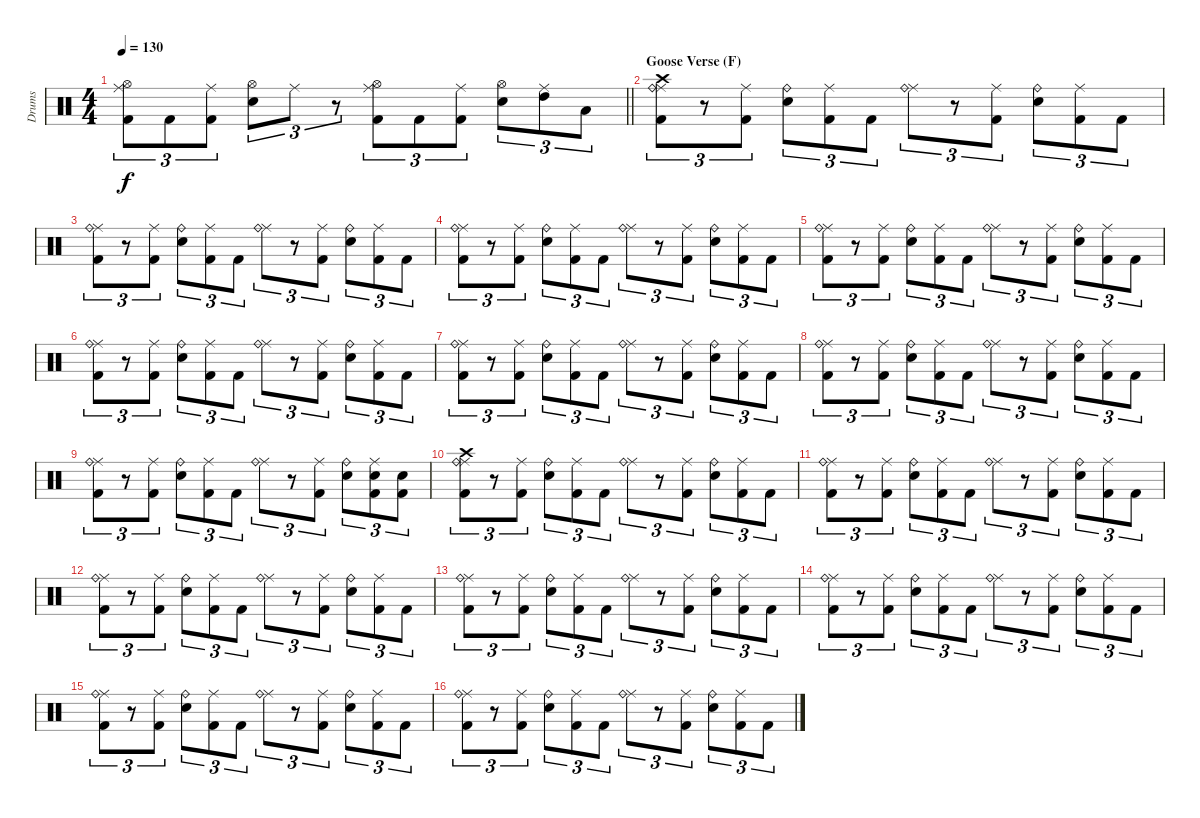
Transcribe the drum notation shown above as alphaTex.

\track ("Drums" "Drums") {instrument percussion}
\staff {score}
\articulation defaults
\ts (4 4)
\tempo 130
\clef neutral
\barLineRight lightlight
\ks c
("Ride (middle)" "Hi-Hat (open)" "Kick (hit) 2").8{tu (3 2) dy f} "Kick (hit) 2".8{tu (3 2)} ("Ride (middle)" "Kick (hit) 2").8{tu (3 2)} ("Hi-Hat (open)" "Snare (hit) 2").8{tu (3 2)} "Ride (middle)".8{tu (3 2)} r.8{tu (3 2)} ("Ride (middle)" "Hi-Hat (open)" "Kick (hit) 2").8{tu (3 2)} "Kick (hit) 2".8{tu (3 2)} ("Ride (middle)" "Kick (hit) 2").8{tu (3 2)} ("Hi-Hat (open)" "Snare (hit) 2").8{tu (3 2)} ("Ride (middle)" "High Tom (hit)").8{tu (3 2)} "Low Tom (hit)".8{tu (3 2)} |
\section ("" "Goose Verse (F)")
("Crash high (hit)" "Ride (middle)" "Ride (bell)" "Kick (hit) 2").8{tu (3 2)} r.8{tu (3 2)} ("Ride (middle)" "Kick (hit) 2").8{tu (3 2)} ("Ride (bell)" "Snare (hit) 2").8{tu (3 2)} ("Ride (middle)" "Kick (hit) 2").8{tu (3 2)} "Kick (hit) 2".8{tu (3 2)} ("Ride (middle)" "Ride (bell)").8{tu (3 2)} r.8{tu (3 2)} ("Ride (middle)" "Kick (hit) 2").8{tu (3 2)} ("Ride (bell)" "Snare (hit) 2").8{tu (3 2)} ("Ride (middle)" "Kick (hit) 2").8{tu (3 2)} "Kick (hit) 2".8{tu (3 2)} |
("Ride (middle)" "Ride (bell)" "Kick (hit) 2").8{tu (3 2)} r.8{tu (3 2)} ("Ride (middle)" "Kick (hit) 2").8{tu (3 2)} ("Ride (bell)" "Snare (hit) 2").8{tu (3 2)} ("Ride (middle)" "Kick (hit) 2").8{tu (3 2)} "Kick (hit) 2".8{tu (3 2)} ("Ride (middle)" "Ride (bell)").8{tu (3 2)} r.8{tu (3 2)} ("Ride (middle)" "Kick (hit) 2").8{tu (3 2)} ("Ride (bell)" "Snare (hit) 2").8{tu (3 2)} ("Ride (middle)" "Kick (hit) 2").8{tu (3 2)} "Kick (hit) 2".8{tu (3 2)} |
("Ride (middle)" "Ride (bell)" "Kick (hit) 2").8{tu (3 2)} r.8{tu (3 2)} ("Ride (middle)" "Kick (hit) 2").8{tu (3 2)} ("Ride (bell)" "Snare (hit) 2").8{tu (3 2)} ("Ride (middle)" "Kick (hit) 2").8{tu (3 2)} "Kick (hit) 2".8{tu (3 2)} ("Ride (middle)" "Ride (bell)").8{tu (3 2)} r.8{tu (3 2)} ("Ride (middle)" "Kick (hit) 2").8{tu (3 2)} ("Ride (bell)" "Snare (hit) 2").8{tu (3 2)} ("Ride (middle)" "Kick (hit) 2").8{tu (3 2)} "Kick (hit) 2".8{tu (3 2)} |
("Ride (middle)" "Ride (bell)" "Kick (hit) 2").8{tu (3 2)} r.8{tu (3 2)} ("Ride (middle)" "Kick (hit) 2").8{tu (3 2)} ("Ride (bell)" "Snare (hit) 2").8{tu (3 2)} ("Ride (middle)" "Kick (hit) 2").8{tu (3 2)} "Kick (hit) 2".8{tu (3 2)} ("Ride (middle)" "Ride (bell)").8{tu (3 2)} r.8{tu (3 2)} ("Ride (middle)" "Kick (hit) 2").8{tu (3 2)} ("Ride (bell)" "Snare (hit) 2").8{tu (3 2)} ("Ride (middle)" "Kick (hit) 2").8{tu (3 2)} "Kick (hit) 2".8{tu (3 2)} |
("Ride (middle)" "Ride (bell)" "Kick (hit) 2").8{tu (3 2)} r.8{tu (3 2)} ("Ride (middle)" "Kick (hit) 2").8{tu (3 2)} ("Ride (bell)" "Snare (hit) 2").8{tu (3 2)} ("Ride (middle)" "Kick (hit) 2").8{tu (3 2)} "Kick (hit) 2".8{tu (3 2)} ("Ride (middle)" "Ride (bell)").8{tu (3 2)} r.8{tu (3 2)} ("Ride (middle)" "Kick (hit) 2").8{tu (3 2)} ("Ride (bell)" "Snare (hit) 2").8{tu (3 2)} ("Ride (middle)" "Kick (hit) 2").8{tu (3 2)} "Kick (hit) 2".8{tu (3 2)} |
("Ride (middle)" "Ride (bell)" "Kick (hit) 2").8{tu (3 2)} r.8{tu (3 2)} ("Ride (middle)" "Kick (hit) 2").8{tu (3 2)} ("Ride (bell)" "Snare (hit) 2").8{tu (3 2)} ("Ride (middle)" "Kick (hit) 2").8{tu (3 2)} "Kick (hit) 2".8{tu (3 2)} ("Ride (middle)" "Ride (bell)").8{tu (3 2)} r.8{tu (3 2)} ("Ride (middle)" "Kick (hit) 2").8{tu (3 2)} ("Ride (bell)" "Snare (hit) 2").8{tu (3 2)} ("Ride (middle)" "Kick (hit) 2").8{tu (3 2)} "Kick (hit) 2".8{tu (3 2)} |
("Ride (middle)" "Ride (bell)" "Kick (hit) 2").8{tu (3 2)} r.8{tu (3 2)} ("Ride (middle)" "Kick (hit) 2").8{tu (3 2)} ("Ride (bell)" "Snare (hit) 2").8{tu (3 2)} ("Ride (middle)" "Kick (hit) 2").8{tu (3 2)} "Kick (hit) 2".8{tu (3 2)} ("Ride (middle)" "Ride (bell)").8{tu (3 2)} r.8{tu (3 2)} ("Ride (middle)" "Kick (hit) 2").8{tu (3 2)} ("Ride (bell)" "Snare (hit) 2").8{tu (3 2)} ("Ride (middle)" "Kick (hit) 2").8{tu (3 2)} "Kick (hit) 2".8{tu (3 2)} |
("Ride (middle)" "Ride (bell)" "Kick (hit) 2").8{tu (3 2)} r.8{tu (3 2)} ("Ride (middle)" "Kick (hit) 2").8{tu (3 2)} ("Ride (bell)" "Snare (hit) 2").8{tu (3 2)} ("Ride (middle)" "Kick (hit) 2").8{tu (3 2)} "Kick (hit) 2".8{tu (3 2)} ("Ride (middle)" "Ride (bell)").8{tu (3 2)} r.8{tu (3 2)} ("Ride (middle)" "Kick (hit) 2").8{tu (3 2)} ("Ride (bell)" "Snare (hit) 2").8{tu (3 2)} ("Ride (middle)" "Snare (hit) 2" "Kick (hit) 2").8{tu (3 2)} ("Snare (hit) 2" "Kick (hit) 2").8{tu (3 2)} |
("Crash high (hit)" "Ride (middle)" "Ride (bell)" "Kick (hit) 2").8{tu (3 2)} r.8{tu (3 2)} ("Ride (middle)" "Kick (hit) 2").8{tu (3 2)} ("Ride (bell)" "Snare (hit) 2").8{tu (3 2)} ("Ride (middle)" "Kick (hit) 2").8{tu (3 2)} "Kick (hit) 2".8{tu (3 2)} ("Ride (middle)" "Ride (bell)").8{tu (3 2)} r.8{tu (3 2)} ("Ride (middle)" "Kick (hit) 2").8{tu (3 2)} ("Ride (bell)" "Snare (hit) 2").8{tu (3 2)} ("Ride (middle)" "Kick (hit) 2").8{tu (3 2)} "Kick (hit) 2".8{tu (3 2)} |
("Ride (middle)" "Ride (bell)" "Kick (hit) 2").8{tu (3 2)} r.8{tu (3 2)} ("Ride (middle)" "Kick (hit) 2").8{tu (3 2)} ("Ride (bell)" "Snare (hit) 2").8{tu (3 2)} ("Ride (middle)" "Kick (hit) 2").8{tu (3 2)} "Kick (hit) 2".8{tu (3 2)} ("Ride (middle)" "Ride (bell)").8{tu (3 2)} r.8{tu (3 2)} ("Ride (middle)" "Kick (hit) 2").8{tu (3 2)} ("Ride (bell)" "Snare (hit) 2").8{tu (3 2)} ("Ride (middle)" "Kick (hit) 2").8{tu (3 2)} "Kick (hit) 2".8{tu (3 2)} |
("Ride (middle)" "Ride (bell)" "Kick (hit) 2").8{tu (3 2)} r.8{tu (3 2)} ("Ride (middle)" "Kick (hit) 2").8{tu (3 2)} ("Ride (bell)" "Snare (hit) 2").8{tu (3 2)} ("Ride (middle)" "Kick (hit) 2").8{tu (3 2)} "Kick (hit) 2".8{tu (3 2)} ("Ride (middle)" "Ride (bell)").8{tu (3 2)} r.8{tu (3 2)} ("Ride (middle)" "Kick (hit) 2").8{tu (3 2)} ("Ride (bell)" "Snare (hit) 2").8{tu (3 2)} ("Ride (middle)" "Kick (hit) 2").8{tu (3 2)} "Kick (hit) 2".8{tu (3 2)} |
("Ride (middle)" "Ride (bell)" "Kick (hit) 2").8{tu (3 2)} r.8{tu (3 2)} ("Ride (middle)" "Kick (hit) 2").8{tu (3 2)} ("Ride (bell)" "Snare (hit) 2").8{tu (3 2)} ("Ride (middle)" "Kick (hit) 2").8{tu (3 2)} "Kick (hit) 2".8{tu (3 2)} ("Ride (middle)" "Ride (bell)").8{tu (3 2)} r.8{tu (3 2)} ("Ride (middle)" "Kick (hit) 2").8{tu (3 2)} ("Ride (bell)" "Snare (hit) 2").8{tu (3 2)} ("Ride (middle)" "Kick (hit) 2").8{tu (3 2)} "Kick (hit) 2".8{tu (3 2)} |
("Ride (middle)" "Ride (bell)" "Kick (hit) 2").8{tu (3 2)} r.8{tu (3 2)} ("Ride (middle)" "Kick (hit) 2").8{tu (3 2)} ("Ride (bell)" "Snare (hit) 2").8{tu (3 2)} ("Ride (middle)" "Kick (hit) 2").8{tu (3 2)} "Kick (hit) 2".8{tu (3 2)} ("Ride (middle)" "Ride (bell)").8{tu (3 2)} r.8{tu (3 2)} ("Ride (middle)" "Kick (hit) 2").8{tu (3 2)} ("Ride (bell)" "Snare (hit) 2").8{tu (3 2)} ("Ride (middle)" "Kick (hit) 2").8{tu (3 2)} "Kick (hit) 2".8{tu (3 2)} |
("Ride (middle)" "Ride (bell)" "Kick (hit) 2").8{tu (3 2)} r.8{tu (3 2)} ("Ride (middle)" "Kick (hit) 2").8{tu (3 2)} ("Ride (bell)" "Snare (hit) 2").8{tu (3 2)} ("Ride (middle)" "Kick (hit) 2").8{tu (3 2)} "Kick (hit) 2".8{tu (3 2)} ("Ride (middle)" "Ride (bell)").8{tu (3 2)} r.8{tu (3 2)} ("Ride (middle)" "Kick (hit) 2").8{tu (3 2)} ("Ride (bell)" "Snare (hit) 2").8{tu (3 2)} ("Ride (middle)" "Kick (hit) 2").8{tu (3 2)} "Kick (hit) 2".8{tu (3 2)} |
("Ride (middle)" "Ride (bell)" "Kick (hit) 2").8{tu (3 2)} r.8{tu (3 2)} ("Ride (middle)" "Kick (hit) 2").8{tu (3 2)} ("Ride (bell)" "Snare (hit) 2").8{tu (3 2)} ("Ride (middle)" "Kick (hit) 2").8{tu (3 2)} "Kick (hit) 2".8{tu (3 2)} ("Ride (middle)" "Ride (bell)").8{tu (3 2)} r.8{tu (3 2)} ("Ride (middle)" "Kick (hit) 2").8{tu (3 2)} ("Ride (bell)" "Snare (hit) 2").8{tu (3 2)} ("Ride (middle)" "Kick (hit) 2").8{tu (3 2)} "Kick (hit) 2".8{tu (3 2)}
